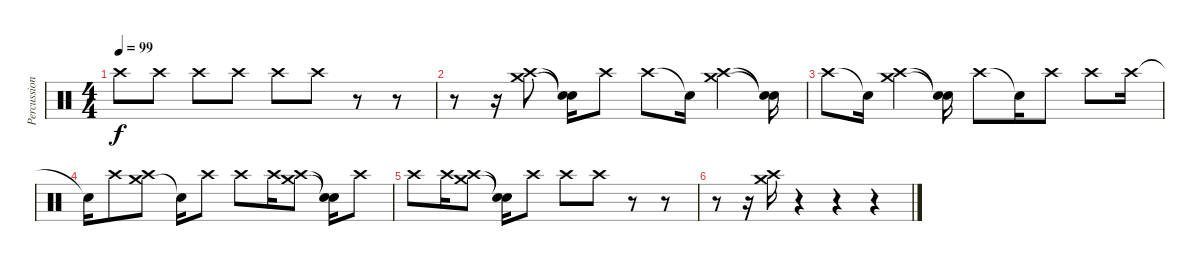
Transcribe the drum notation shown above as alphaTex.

\track ("Percussion2" "Percussion") {instrument percussion}
\staff {score}
\articulation defaults
\ts (4 4)
\tempo 99
\clef neutral
\ks c "Crash high (hit)".8{dy f} "Crash high (hit)".8 "Crash high (hit)".8 "Crash high (hit)".8 "Crash high (hit)".8 "Crash high (hit)".8
r.8 r.8 |
r.8 r.16 ("Crash medium (hit)" "Crash high (hit)").8 ("Snare (hit)"{t} "Snare (hit)"{t}).16 "Crash high (hit)".8 "Crash high (hit)".8 "Snare (hit)"{t}.16 ("Crash medium (hit)" "Crash high (hit)").4 ("Snare (hit)"{t} "Snare (hit)"{t}).16 |
"Crash high (hit)".8 "Snare (hit)"{t}.16 ("Crash medium (hit)" "Crash high (hit)").4 ("Snare (hit)"{t} "Snare (hit)"{t}).16 "Crash high (hit)".8 "Snare (hit)"{t}.16 "Crash high (hit)".8 "Crash high (hit)".8 "Crash high (hit)".16 |
"Snare (hit)"{t}.16 "Crash high (hit)".8 ("Crash medium (hit)" "Crash high (hit)").8 "Snare (hit)"{t}.16 "Crash high (hit)".8 "Crash high (hit)".8 "Crash high (hit)".16 ("Crash medium (hit)" "Crash high (hit)").8 ("Snare (hit)"{t} "Snare (hit)"{t}).16 "Crash high (hit)".8 |
"Crash high (hit)".8 "Crash high (hit)".16 ("Crash medium (hit)" "Crash high (hit)").8 ("Snare (hit)"{t} "Snare (hit)"{t}).16 "Crash high (hit)".8 "Crash high (hit)".8 "Crash high (hit)".8 r.8 r.8 |
r.8 r.16 ("Crash medium (hit)" "Crash high (hit)").16 r.4 r.4 r.4
